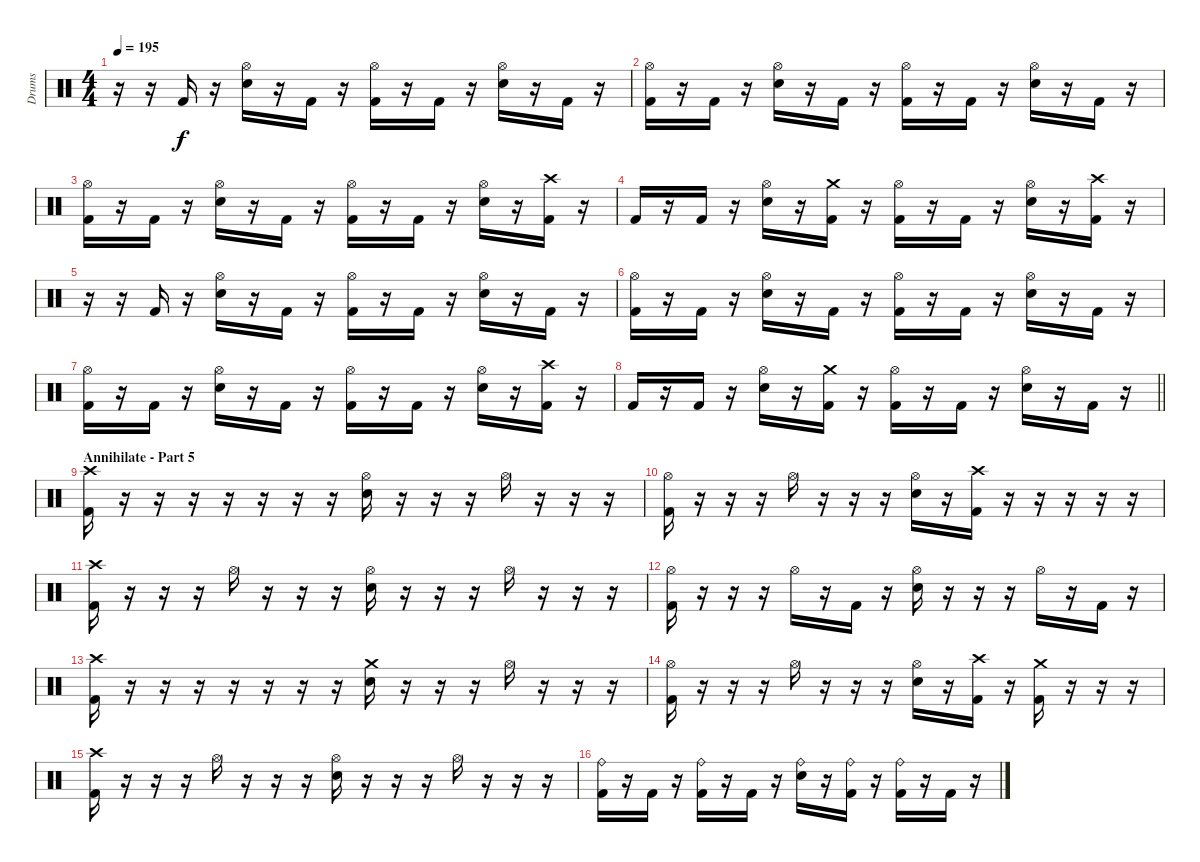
\track ("Drums" "Drums") {instrument percussion}
\staff {score}
\articulation defaults
\ts (4 4)
\tempo 195
\clef neutral
\ks c
r.16{dy f} r.16 "Kick (hit) 2".16 r.16 ("Electric Snare (hit)" "Hi-Hat (open)").16 r.16 "Kick (hit) 2".16 r.16 ("Hi-Hat (open)" "Kick (hit) 2").16 r.16 "Kick (hit) 2".16 r.16 ("Hi-Hat (open)" "Electric Snare (hit)").16 r.16 "Kick (hit) 2".16 r.16 |
("Hi-Hat (open)" "Kick (hit) 2").16 r.16 "Kick (hit) 2".16 r.16 ("Electric Snare (hit)" "Hi-Hat (open)").16 r.16 "Kick (hit) 2".16 r.16 ("Hi-Hat (open)" "Kick (hit) 2").16 r.16 "Kick (hit) 2".16 r.16 ("Hi-Hat (open)" "Electric Snare (hit)").16 r.16 "Kick (hit) 2".16 r.16 |
("Hi-Hat (open)" "Kick (hit) 2").16 r.16 "Kick (hit) 2".16 r.16 ("Electric Snare (hit)" "Hi-Hat (open)").16 r.16 "Kick (hit) 2".16 r.16 ("Hi-Hat (open)" "Kick (hit) 2").16 r.16 "Kick (hit) 2".16 r.16 ("Hi-Hat (open)" "Electric Snare (hit)").16 r.16 ("Crash high (hit)" "Kick (hit) 2").16 r.16 |
"Kick (hit) 2".16 r.16 "Kick (hit) 2".16 r.16 ("Electric Snare (hit)" "Hi-Hat (open)").16 r.16 ("Crash medium (hit)" "Kick (hit) 2").16 r.16 ("Hi-Hat (open)" "Kick (hit) 2").16 r.16 "Kick (hit) 2".16 r.16 ("Hi-Hat (open)" "Electric Snare (hit)").16 r.16 ("Crash high (hit)" "Kick (hit) 2").16 r.16 |
r.16 r.16 "Kick (hit) 2".16 r.16 ("Electric Snare (hit)" "Hi-Hat (open)").16 r.16 "Kick (hit) 2".16 r.16 ("Hi-Hat (open)" "Kick (hit) 2").16 r.16 "Kick (hit) 2".16 r.16 ("Hi-Hat (open)" "Electric Snare (hit)").16 r.16 "Kick (hit) 2".16 r.16 |
("Hi-Hat (open)" "Kick (hit) 2").16 r.16 "Kick (hit) 2".16 r.16 ("Electric Snare (hit)" "Hi-Hat (open)").16 r.16 "Kick (hit) 2".16 r.16 ("Hi-Hat (open)" "Kick (hit) 2").16 r.16 "Kick (hit) 2".16 r.16 ("Hi-Hat (open)" "Electric Snare (hit)").16 r.16 "Kick (hit) 2".16 r.16 |
("Hi-Hat (open)" "Kick (hit) 2").16 r.16 "Kick (hit) 2".16 r.16 ("Electric Snare (hit)" "Hi-Hat (open)").16 r.16 "Kick (hit) 2".16 r.16 ("Hi-Hat (open)" "Kick (hit) 2").16 r.16 "Kick (hit) 2".16 r.16 ("Hi-Hat (open)" "Electric Snare (hit)").16 r.16 ("Crash high (hit)" "Kick (hit) 2").16 r.16 |
\barLineRight lightlight "Kick (hit) 2".16
r.16 "Kick (hit) 2".16 r.16 ("Electric Snare (hit)" "Hi-Hat (open)").16 r.16 ("Crash medium (hit)" "Kick (hit) 2").16 r.16 ("Hi-Hat (open)" "Kick (hit) 2").16 r.16 "Kick (hit) 2".16 r.16 ("Hi-Hat (open)" "Electric Snare (hit)").16 r.16 "Kick (hit) 2".16 r.16 |
\section ("" "Annihilate - Part 5")
("Crash high (hit)" "Kick (hit) 2").16 r.16 r.16 r.16 r.16 r.16 r.16 r.16 ("Hi-Hat (open)" "Electric Snare (hit)").16 r.16 r.16 r.16 "Hi-Hat (open)".16 r.16 r.16 r.16 |
("Hi-Hat (open)" "Kick (hit) 2").16 r.16 r.16 r.16 "Hi-Hat (open)".16 r.16 r.16 r.16 ("Hi-Hat (open)" "Electric Snare (hit)").16 r.16 ("Crash high (hit)" "Kick (hit) 2").16 r.16 r.16 r.16 r.16 r.16 |
("Crash high (hit)" "Kick (hit) 2").16 r.16 r.16 r.16 "Hi-Hat (open)".16 r.16 r.16 r.16 ("Hi-Hat (open)" "Electric Snare (hit)").16 r.16 r.16 r.16 "Hi-Hat (open)".16 r.16 r.16 r.16 |
("Hi-Hat (open)" "Kick (hit) 2").16 r.16 r.16 r.16 "Hi-Hat (open)".16 r.16 "Kick (hit) 2".16 r.16 ("Hi-Hat (open)" "Electric Snare (hit)").16 r.16 r.16 r.16 "Hi-Hat (open)".16 r.16 "Kick (hit) 2".16 r.16 |
("Crash high (hit)" "Kick (hit) 2").16 r.16 r.16 r.16 r.16 r.16 r.16 r.16 ("Crash medium (hit)" "Electric Snare (hit)").16 r.16 r.16 r.16 "Hi-Hat (open)".16 r.16 r.16 r.16 |
("Hi-Hat (open)" "Kick (hit) 2").16 r.16 r.16 r.16 "Hi-Hat (open)".16 r.16 r.16 r.16 ("Hi-Hat (open)" "Electric Snare (hit)").16 r.16 ("Crash high (hit)" "Kick (hit) 2").16 r.16 ("Crash medium (hit)" "Kick (hit) 2").16 r.16 r.16 r.16 |
("Crash high (hit)" "Kick (hit) 2").16 r.16 r.16 r.16 "Hi-Hat (open)".16 r.16 r.16 r.16 ("Hi-Hat (open)" "Electric Snare (hit)").16 r.16 r.16 r.16 "Hi-Hat (open)".16 r.16 r.16 r.16 |
("Ride (bell)" "Kick (hit) 2").16 r.16 "Kick (hit) 2".16 r.16 ("Ride (bell)" "Kick (hit) 2").16 r.16 "Kick (hit) 2".16 r.16 ("Ride (bell)" "Electric Snare (hit)").16 r.16 ("Ride (bell)" "Kick (hit) 2").16 r.16 ("Ride (bell)" "Kick (hit) 2").16 r.16 "Kick (hit) 2".16 r.16
